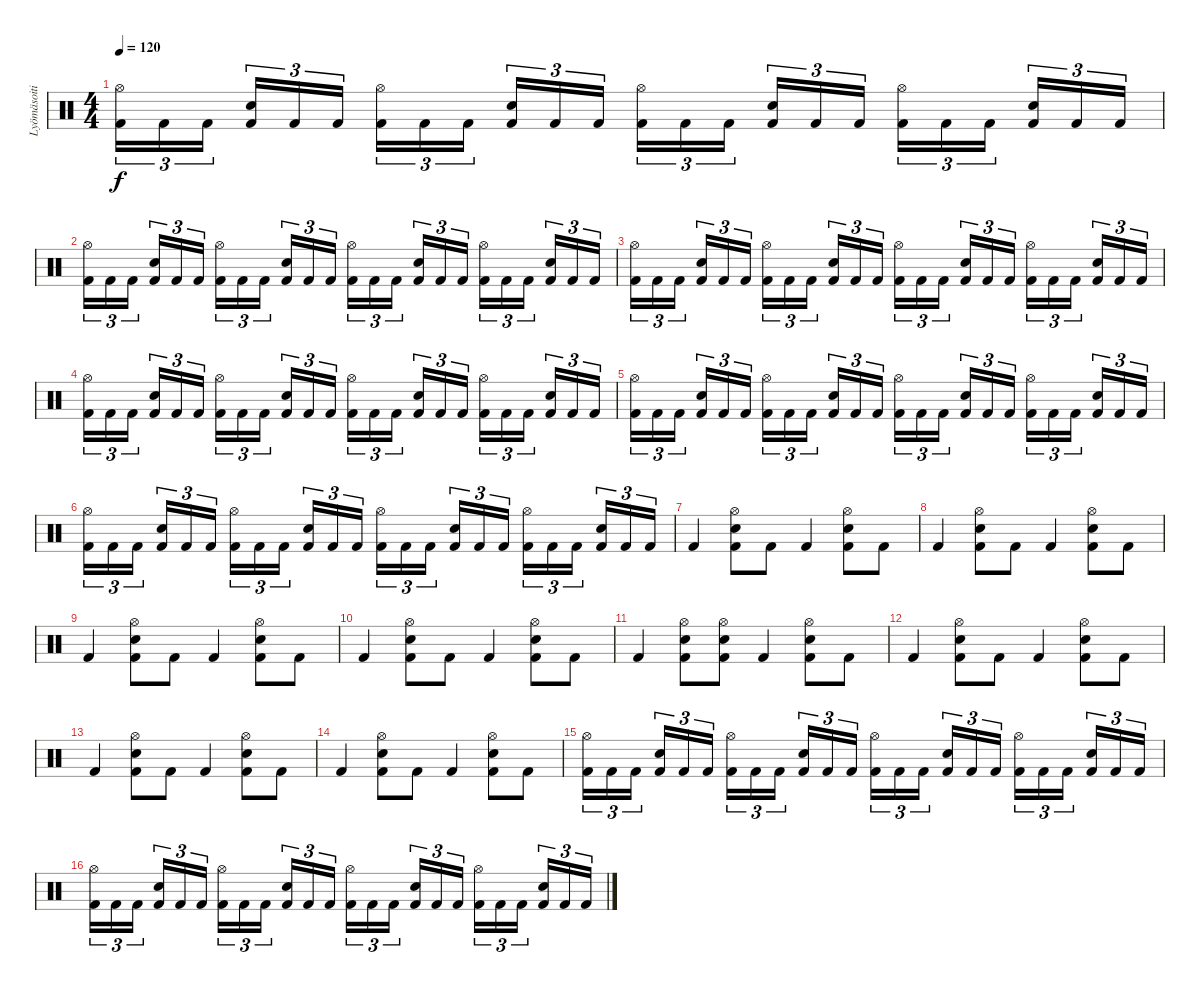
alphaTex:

\track ("Lyömäsoitin" "Lyömäsoiti") {instrument percussion}
\staff {score}
\articulation defaults
\ts (4 4)
\tempo 120
\clef neutral
\ks c
("Hi-Hat (open)" "Kick (hit) 2").16{tu (3 2) dy f} "Kick (hit) 2".16{tu (3 2)} "Kick (hit) 2".16{tu (3 2) beam splitsecondary} ("Electric Snare (hit)" "Kick (hit) 2").16{tu (3 2)} "Kick (hit) 2".16{tu (3 2)} "Kick (hit) 2".16{tu (3 2)} ("Hi-Hat (open)" "Kick (hit) 2").16{tu (3 2)} "Kick (hit) 2".16{tu (3 2)} "Kick (hit) 2".16{tu (3 2) beam splitsecondary} ("Electric Snare (hit)" "Kick (hit) 2").16{tu (3 2)} "Kick (hit) 2".16{tu (3 2)} "Kick (hit) 2".16{tu (3 2)} ("Hi-Hat (open)" "Kick (hit) 2").16{tu (3 2)} "Kick (hit) 2".16{tu (3 2)} "Kick (hit) 2".16{tu (3 2) beam splitsecondary} ("Electric Snare (hit)" "Kick (hit) 2").16{tu (3 2)} "Kick (hit) 2".16{tu (3 2)} "Kick (hit) 2".16{tu (3 2)} ("Hi-Hat (open)" "Kick (hit) 2").16{tu (3 2)} "Kick (hit) 2".16{tu (3 2)} "Kick (hit) 2".16{tu (3 2) beam splitsecondary} ("Electric Snare (hit)" "Kick (hit) 2").16{tu (3 2)} "Kick (hit) 2".16{tu (3 2)} "Kick (hit) 2".16{tu (3 2)} |
("Hi-Hat (open)" "Kick (hit) 2").16{tu (3 2)} "Kick (hit) 2".16{tu (3 2)} "Kick (hit) 2".16{tu (3 2) beam splitsecondary} ("Electric Snare (hit)" "Kick (hit) 2").16{tu (3 2)} "Kick (hit) 2".16{tu (3 2)} "Kick (hit) 2".16{tu (3 2)} ("Hi-Hat (open)" "Kick (hit) 2").16{tu (3 2)} "Kick (hit) 2".16{tu (3 2)} "Kick (hit) 2".16{tu (3 2) beam splitsecondary} ("Electric Snare (hit)" "Kick (hit) 2").16{tu (3 2)} "Kick (hit) 2".16{tu (3 2)} "Kick (hit) 2".16{tu (3 2)} ("Hi-Hat (open)" "Kick (hit) 2").16{tu (3 2)} "Kick (hit) 2".16{tu (3 2)} "Kick (hit) 2".16{tu (3 2) beam splitsecondary} ("Electric Snare (hit)" "Kick (hit) 2").16{tu (3 2)} "Kick (hit) 2".16{tu (3 2)} "Kick (hit) 2".16{tu (3 2)} ("Hi-Hat (open)" "Kick (hit) 2").16{tu (3 2)} "Kick (hit) 2".16{tu (3 2)} "Kick (hit) 2".16{tu (3 2) beam splitsecondary} ("Electric Snare (hit)" "Kick (hit) 2").16{tu (3 2)} "Kick (hit) 2".16{tu (3 2)} "Kick (hit) 2".16{tu (3 2)} |
("Hi-Hat (open)" "Kick (hit) 2").16{tu (3 2)} "Kick (hit) 2".16{tu (3 2)} "Kick (hit) 2".16{tu (3 2) beam splitsecondary} ("Electric Snare (hit)" "Kick (hit) 2").16{tu (3 2)} "Kick (hit) 2".16{tu (3 2)} "Kick (hit) 2".16{tu (3 2)} ("Hi-Hat (open)" "Kick (hit) 2").16{tu (3 2)} "Kick (hit) 2".16{tu (3 2)} "Kick (hit) 2".16{tu (3 2) beam splitsecondary} ("Electric Snare (hit)" "Kick (hit) 2").16{tu (3 2)} "Kick (hit) 2".16{tu (3 2)} "Kick (hit) 2".16{tu (3 2)} ("Hi-Hat (open)" "Kick (hit) 2").16{tu (3 2)} "Kick (hit) 2".16{tu (3 2)} "Kick (hit) 2".16{tu (3 2) beam splitsecondary} ("Electric Snare (hit)" "Kick (hit) 2").16{tu (3 2)} "Kick (hit) 2".16{tu (3 2)} "Kick (hit) 2".16{tu (3 2)} ("Hi-Hat (open)" "Kick (hit) 2").16{tu (3 2)} "Kick (hit) 2".16{tu (3 2)} "Kick (hit) 2".16{tu (3 2) beam splitsecondary} ("Electric Snare (hit)" "Kick (hit) 2").16{tu (3 2)} "Kick (hit) 2".16{tu (3 2)} "Kick (hit) 2".16{tu (3 2)} |
("Hi-Hat (open)" "Kick (hit) 2").16{tu (3 2)} "Kick (hit) 2".16{tu (3 2)} "Kick (hit) 2".16{tu (3 2) beam splitsecondary} ("Electric Snare (hit)" "Kick (hit) 2").16{tu (3 2)} "Kick (hit) 2".16{tu (3 2)} "Kick (hit) 2".16{tu (3 2)} ("Hi-Hat (open)" "Kick (hit) 2").16{tu (3 2)} "Kick (hit) 2".16{tu (3 2)} "Kick (hit) 2".16{tu (3 2) beam splitsecondary} ("Electric Snare (hit)" "Kick (hit) 2").16{tu (3 2)} "Kick (hit) 2".16{tu (3 2)} "Kick (hit) 2".16{tu (3 2)} ("Hi-Hat (open)" "Kick (hit) 2").16{tu (3 2)} "Kick (hit) 2".16{tu (3 2)} "Kick (hit) 2".16{tu (3 2) beam splitsecondary} ("Electric Snare (hit)" "Kick (hit) 2").16{tu (3 2)} "Kick (hit) 2".16{tu (3 2)} "Kick (hit) 2".16{tu (3 2)} ("Hi-Hat (open)" "Kick (hit) 2").16{tu (3 2)} "Kick (hit) 2".16{tu (3 2)} "Kick (hit) 2".16{tu (3 2) beam splitsecondary} ("Electric Snare (hit)" "Kick (hit) 2").16{tu (3 2)} "Kick (hit) 2".16{tu (3 2)} "Kick (hit) 2".16{tu (3 2)} |
("Hi-Hat (open)" "Kick (hit) 2").16{tu (3 2)} "Kick (hit) 2".16{tu (3 2)} "Kick (hit) 2".16{tu (3 2) beam splitsecondary} ("Electric Snare (hit)" "Kick (hit) 2").16{tu (3 2)} "Kick (hit) 2".16{tu (3 2)} "Kick (hit) 2".16{tu (3 2)} ("Hi-Hat (open)" "Kick (hit) 2").16{tu (3 2)} "Kick (hit) 2".16{tu (3 2)} "Kick (hit) 2".16{tu (3 2) beam splitsecondary} ("Electric Snare (hit)" "Kick (hit) 2").16{tu (3 2)} "Kick (hit) 2".16{tu (3 2)} "Kick (hit) 2".16{tu (3 2)} ("Hi-Hat (open)" "Kick (hit) 2").16{tu (3 2)} "Kick (hit) 2".16{tu (3 2)} "Kick (hit) 2".16{tu (3 2) beam splitsecondary} ("Electric Snare (hit)" "Kick (hit) 2").16{tu (3 2)} "Kick (hit) 2".16{tu (3 2)} "Kick (hit) 2".16{tu (3 2)} ("Hi-Hat (open)" "Kick (hit) 2").16{tu (3 2)} "Kick (hit) 2".16{tu (3 2)} "Kick (hit) 2".16{tu (3 2) beam splitsecondary} ("Electric Snare (hit)" "Kick (hit) 2").16{tu (3 2)} "Kick (hit) 2".16{tu (3 2)} "Kick (hit) 2".16{tu (3 2)} |
("Hi-Hat (open)" "Kick (hit) 2").16{tu (3 2)} "Kick (hit) 2".16{tu (3 2)} "Kick (hit) 2".16{tu (3 2) beam splitsecondary} ("Electric Snare (hit)" "Kick (hit) 2").16{tu (3 2)} "Kick (hit) 2".16{tu (3 2)} "Kick (hit) 2".16{tu (3 2)} ("Hi-Hat (open)" "Kick (hit) 2").16{tu (3 2)} "Kick (hit) 2".16{tu (3 2)} "Kick (hit) 2".16{tu (3 2) beam splitsecondary} ("Electric Snare (hit)" "Kick (hit) 2").16{tu (3 2)} "Kick (hit) 2".16{tu (3 2)} "Kick (hit) 2".16{tu (3 2)} ("Hi-Hat (open)" "Kick (hit) 2").16{tu (3 2)} "Kick (hit) 2".16{tu (3 2)} "Kick (hit) 2".16{tu (3 2) beam splitsecondary} ("Electric Snare (hit)" "Kick (hit) 2").16{tu (3 2)} "Kick (hit) 2".16{tu (3 2)} "Kick (hit) 2".16{tu (3 2)} ("Hi-Hat (open)" "Kick (hit) 2").16{tu (3 2)} "Kick (hit) 2".16{tu (3 2)} "Kick (hit) 2".16{tu (3 2) beam splitsecondary} ("Electric Snare (hit)" "Kick (hit) 2").16{tu (3 2)} "Kick (hit) 2".16{tu (3 2)} "Kick (hit) 2".16{tu (3 2)} |
"Kick (hit) 2".4 ("Electric Snare (hit)" "Hi-Hat (open)" "Kick (hit) 2").8 "Kick (hit) 2".8 "Kick (hit) 2".4 ("Electric Snare (hit)" "Hi-Hat (open)" "Kick (hit) 2").8 "Kick (hit) 2".8 |
"Kick (hit) 2".4 ("Electric Snare (hit)" "Hi-Hat (open)" "Kick (hit) 2").8 "Kick (hit) 2".8 "Kick (hit) 2".4 ("Electric Snare (hit)" "Hi-Hat (open)" "Kick (hit) 2").8 "Kick (hit) 2".8 |
"Kick (hit) 2".4 ("Electric Snare (hit)" "Hi-Hat (open)" "Kick (hit) 2").8 "Kick (hit) 2".8 "Kick (hit) 2".4 ("Electric Snare (hit)" "Hi-Hat (open)" "Kick (hit) 2").8 "Kick (hit) 2".8 |
"Kick (hit) 2".4 ("Electric Snare (hit)" "Hi-Hat (open)" "Kick (hit) 2").8 "Kick (hit) 2".8 "Kick (hit) 2".4 ("Electric Snare (hit)" "Hi-Hat (open)" "Kick (hit) 2").8 "Kick (hit) 2".8 |
"Kick (hit) 2".4 ("Electric Snare (hit)" "Hi-Hat (open)" "Kick (hit) 2").8 ("Electric Snare (hit)" "Hi-Hat (open)" "Kick (hit) 2").8 "Kick (hit) 2".4 ("Electric Snare (hit)" "Hi-Hat (open)" "Kick (hit) 2").8 "Kick (hit) 2".8 |
"Kick (hit) 2".4 ("Electric Snare (hit)" "Hi-Hat (open)" "Kick (hit) 2").8 "Kick (hit) 2".8 "Kick (hit) 2".4 ("Electric Snare (hit)" "Hi-Hat (open)" "Kick (hit) 2").8 "Kick (hit) 2".8 |
"Kick (hit) 2".4 ("Electric Snare (hit)" "Hi-Hat (open)" "Kick (hit) 2").8 "Kick (hit) 2".8 "Kick (hit) 2".4 ("Electric Snare (hit)" "Hi-Hat (open)" "Kick (hit) 2").8 "Kick (hit) 2".8 |
"Kick (hit) 2".4 ("Electric Snare (hit)" "Hi-Hat (open)" "Kick (hit) 2").8 "Kick (hit) 2".8 "Kick (hit) 2".4 ("Electric Snare (hit)" "Hi-Hat (open)" "Kick (hit) 2").8 "Kick (hit) 2".8 |
("Hi-Hat (open)" "Kick (hit) 2").16{tu (3 2)} "Kick (hit) 2".16{tu (3 2)} "Kick (hit) 2".16{tu (3 2) beam splitsecondary} ("Electric Snare (hit)" "Kick (hit) 2").16{tu (3 2)} "Kick (hit) 2".16{tu (3 2)} "Kick (hit) 2".16{tu (3 2)} ("Hi-Hat (open)" "Kick (hit) 2").16{tu (3 2)} "Kick (hit) 2".16{tu (3 2)} "Kick (hit) 2".16{tu (3 2) beam splitsecondary} ("Electric Snare (hit)" "Kick (hit) 2").16{tu (3 2)} "Kick (hit) 2".16{tu (3 2)} "Kick (hit) 2".16{tu (3 2)} ("Hi-Hat (open)" "Kick (hit) 2").16{tu (3 2)} "Kick (hit) 2".16{tu (3 2)} "Kick (hit) 2".16{tu (3 2) beam splitsecondary} ("Electric Snare (hit)" "Kick (hit) 2").16{tu (3 2)} "Kick (hit) 2".16{tu (3 2)} "Kick (hit) 2".16{tu (3 2)} ("Hi-Hat (open)" "Kick (hit) 2").16{tu (3 2)} "Kick (hit) 2".16{tu (3 2)} "Kick (hit) 2".16{tu (3 2) beam splitsecondary} ("Electric Snare (hit)" "Kick (hit) 2").16{tu (3 2)} "Kick (hit) 2".16{tu (3 2)} "Kick (hit) 2".16{tu (3 2)} |
("Hi-Hat (open)" "Kick (hit) 2").16{tu (3 2)} "Kick (hit) 2".16{tu (3 2)} "Kick (hit) 2".16{tu (3 2) beam splitsecondary} ("Electric Snare (hit)" "Kick (hit) 2").16{tu (3 2)} "Kick (hit) 2".16{tu (3 2)} "Kick (hit) 2".16{tu (3 2)} ("Hi-Hat (open)" "Kick (hit) 2").16{tu (3 2)} "Kick (hit) 2".16{tu (3 2)} "Kick (hit) 2".16{tu (3 2) beam splitsecondary} ("Electric Snare (hit)" "Kick (hit) 2").16{tu (3 2)} "Kick (hit) 2".16{tu (3 2)} "Kick (hit) 2".16{tu (3 2)} ("Hi-Hat (open)" "Kick (hit) 2").16{tu (3 2)} "Kick (hit) 2".16{tu (3 2)} "Kick (hit) 2".16{tu (3 2) beam splitsecondary} ("Electric Snare (hit)" "Kick (hit) 2").16{tu (3 2)} "Kick (hit) 2".16{tu (3 2)} "Kick (hit) 2".16{tu (3 2)} ("Hi-Hat (open)" "Kick (hit) 2").16{tu (3 2)} "Kick (hit) 2".16{tu (3 2)} "Kick (hit) 2".16{tu (3 2) beam splitsecondary} ("Electric Snare (hit)" "Kick (hit) 2").16{tu (3 2)} "Kick (hit) 2".16{tu (3 2)} "Kick (hit) 2".16{tu (3 2)}
